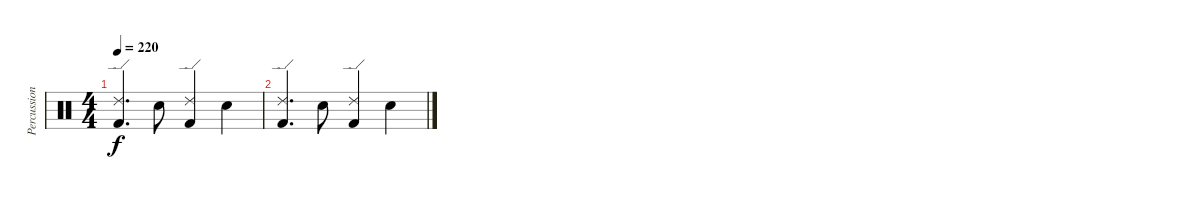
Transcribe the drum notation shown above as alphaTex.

\track ("Percussion" "Percussion") {instrument percussion}
\staff {score}
\articulation defaults
\ts (4 4)
\tempo 220
\clef neutral
\ks c
("Ride (edge) 2" "Kick (hit) 2").4{d dy f} "Snare (hit) 2".8 ("Ride (edge) 2" "Kick (hit) 2").4 "Snare (hit) 2".4 |
("Ride (edge) 2" "Kick (hit) 2").4{d} "Snare (hit) 2".8 ("Ride (edge) 2" "Kick (hit) 2").4 "Snare (hit) 2".4
